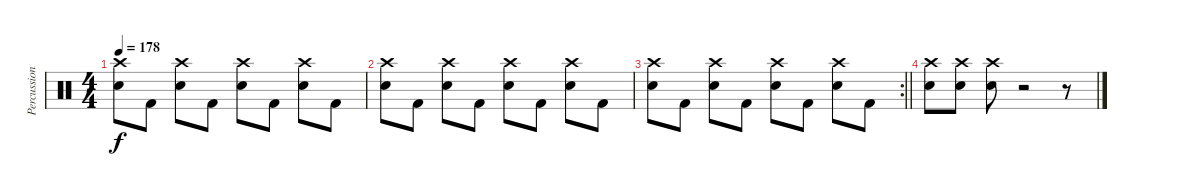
\track ("Percussion" "Percussion") {instrument percussion}
\staff {score}
\articulation defaults
\ts (4 4)
\tempo 178
\clef neutral
\ks c
("Crash high (hit)" "Snare (hit) 2").8{dy f} "Kick (hit) 2".8 ("Crash high (hit)" "Snare (hit) 2").8 "Kick (hit) 2".8 ("Crash high (hit)" "Snare (hit) 2").8 "Kick (hit) 2".8 ("Crash high (hit)" "Snare (hit) 2").8 "Kick (hit) 2".8 |
("Crash high (hit)" "Snare (hit) 2").8 "Kick (hit) 2".8 ("Crash high (hit)" "Snare (hit) 2").8 "Kick (hit) 2".8 ("Crash high (hit)" "Snare (hit) 2").8 "Kick (hit) 2".8 ("Crash high (hit)" "Snare (hit) 2").8 "Kick (hit) 2".8 |
\rc 2
\barLineRight lightlight
("Crash high (hit)" "Snare (hit) 2").8 "Kick (hit) 2".8 ("Crash high (hit)" "Snare (hit) 2").8 "Kick (hit) 2".8 ("Crash high (hit)" "Snare (hit) 2").8 "Kick (hit) 2".8 ("Crash high (hit)" "Snare (hit) 2").8 "Kick (hit) 2".8 |
("Crash high (hit)" "Snare (hit) 2").8 ("Crash high (hit)" "Snare (hit) 2").8 ("Crash high (hit)" "Snare (hit) 2").8 r.2 r.8
